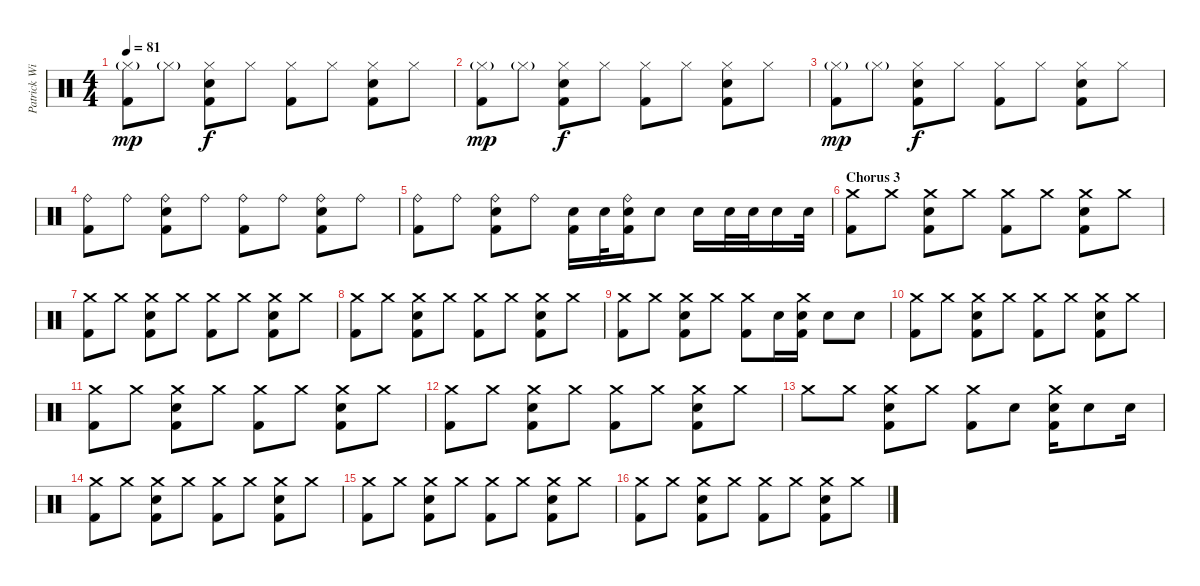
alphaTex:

\track ("Patrick Wilson" "Patrick Wi") {instrument percussion}
\staff {score}
\articulation defaults
\ts (4 4)
\tempo 81
\clef neutral
\ks c
("Hi-Hat (closed)"{g} "Kick (hit) 2").8{dy mp} "Hi-Hat (closed)"{g}.8 ("Hi-Hat (closed)" "Electric Snare (hit)" "Kick (hit) 2").8{dy f} "Hi-Hat (closed)".8 ("Hi-Hat (closed)" "Kick (hit) 2").8 "Hi-Hat (closed)".8 ("Hi-Hat (closed)" "Electric Snare (hit)" "Kick (hit) 2").8 "Hi-Hat (closed)".8 |
("Hi-Hat (closed)"{g} "Kick (hit) 2").8{dy mp} "Hi-Hat (closed)"{g}.8 ("Hi-Hat (closed)" "Electric Snare (hit)" "Kick (hit) 2").8{dy f} "Hi-Hat (closed)".8 ("Hi-Hat (closed)" "Kick (hit) 2").8 "Hi-Hat (closed)".8 ("Hi-Hat (closed)" "Electric Snare (hit)" "Kick (hit) 2").8 "Hi-Hat (closed)".8 |
("Hi-Hat (closed)"{g} "Kick (hit) 2").8{dy mp} "Hi-Hat (closed)"{g}.8 ("Hi-Hat (closed)" "Electric Snare (hit)" "Kick (hit) 2").8{dy f} "Hi-Hat (closed)".8 ("Hi-Hat (closed)" "Kick (hit) 2").8 "Hi-Hat (closed)".8 ("Hi-Hat (closed)" "Electric Snare (hit)" "Kick (hit) 2").8 "Hi-Hat (closed)".8 |
("Ride (bell)" "Kick (hit) 2").8 "Ride (bell)".8 ("Ride (bell)" "Electric Snare (hit)" "Kick (hit) 2").8 "Ride (bell)".8 ("Ride (bell)" "Kick (hit) 2").8 "Ride (bell)".8 ("Ride (bell)" "Electric Snare (hit)" "Kick (hit) 2").8 "Ride (bell)".8 |
("Ride (bell)" "Kick (hit) 2").8 "Ride (bell)".8 ("Ride (bell)" "Electric Snare (hit)" "Kick (hit) 2").8 "Ride (bell)".8 ("Electric Snare (hit)" "Kick (hit) 2").16 "Electric Snare (hit)".32 ("Ride (bell)" "Electric Snare (hit)" "Kick (hit) 2").16 "Electric Snare (hit)".8 "Electric Snare (hit)".16 "Electric Snare (hit)".32 "Electric Snare (hit)".32 "Electric Snare (hit)".16 "Electric Snare (hit)".32 |
\section ("" "Chorus 3")
("Crash medium (hit)" "Kick (hit) 2").8 "Crash medium (hit)".8 ("Crash medium (hit)" "Electric Snare (hit)" "Kick (hit) 2").8 "Crash medium (hit)".8 ("Crash medium (hit)" "Kick (hit) 2").8 "Crash medium (hit)".8 ("Crash medium (hit)" "Electric Snare (hit)" "Kick (hit) 2").8 "Crash medium (hit)".8 |
("Crash medium (hit)" "Kick (hit) 2").8 "Crash medium (hit)".8 ("Crash medium (hit)" "Electric Snare (hit)" "Kick (hit) 2").8 "Crash medium (hit)".8 ("Crash medium (hit)" "Kick (hit) 2").8 "Crash medium (hit)".8 ("Crash medium (hit)" "Electric Snare (hit)" "Kick (hit) 2").8 "Crash medium (hit)".8 |
("Crash medium (hit)" "Kick (hit) 2").8 "Crash medium (hit)".8 ("Crash medium (hit)" "Electric Snare (hit)" "Kick (hit) 2").8 "Crash medium (hit)".8 ("Crash medium (hit)" "Kick (hit) 2").8 "Crash medium (hit)".8 ("Crash medium (hit)" "Electric Snare (hit)" "Kick (hit) 2").8 "Crash medium (hit)".8 |
("Crash medium (hit)" "Kick (hit) 2").8 "Crash medium (hit)".8 ("Crash medium (hit)" "Electric Snare (hit)" "Kick (hit) 2").8 "Crash medium (hit)".8 ("Crash medium (hit)" "Kick (hit) 2").8 "Electric Snare (hit)".16 ("Crash medium (hit)" "Electric Snare (hit)" "Kick (hit) 2").16 "Electric Snare (hit)".8 "Electric Snare (hit)".8 |
("Crash medium (hit)" "Kick (hit) 2").8 "Crash medium (hit)".8 ("Crash medium (hit)" "Electric Snare (hit)" "Kick (hit) 2").8 "Crash medium (hit)".8 ("Crash medium (hit)" "Kick (hit) 2").8 "Crash medium (hit)".8 ("Crash medium (hit)" "Electric Snare (hit)" "Kick (hit) 2").8 "Crash medium (hit)".8 |
("Crash medium (hit)" "Kick (hit) 2").8 "Crash medium (hit)".8 ("Crash medium (hit)" "Electric Snare (hit)" "Kick (hit) 2").8 "Crash medium (hit)".8 ("Crash medium (hit)" "Kick (hit) 2").8 "Crash medium (hit)".8 ("Crash medium (hit)" "Electric Snare (hit)" "Kick (hit) 2").8 "Crash medium (hit)".8 |
("Crash medium (hit)" "Kick (hit) 2").8 "Crash medium (hit)".8 ("Crash medium (hit)" "Electric Snare (hit)" "Kick (hit) 2").8 "Crash medium (hit)".8 ("Crash medium (hit)" "Kick (hit) 2").8 "Crash medium (hit)".8 ("Crash medium (hit)" "Electric Snare (hit)" "Kick (hit) 2").8 "Crash medium (hit)".8 |
"Crash medium (hit)".8 "Crash medium (hit)".8 ("Crash medium (hit)" "Electric Snare (hit)" "Kick (hit) 2").8 "Crash medium (hit)".8 ("Crash medium (hit)" "Kick (hit) 2").8 "Electric Snare (hit)".8 ("Crash medium (hit)" "Electric Snare (hit)" "Kick (hit) 2").16 "Electric Snare (hit)".8 "Electric Snare (hit)".16 |
("Crash medium (hit)" "Kick (hit) 2").8 "Crash medium (hit)".8 ("Crash medium (hit)" "Electric Snare (hit)" "Kick (hit) 2").8 "Crash medium (hit)".8 ("Crash medium (hit)" "Kick (hit) 2").8 "Crash medium (hit)".8 ("Crash medium (hit)" "Electric Snare (hit)" "Kick (hit) 2").8 "Crash medium (hit)".8 |
("Crash medium (hit)" "Kick (hit) 2").8 "Crash medium (hit)".8 ("Crash medium (hit)" "Electric Snare (hit)" "Kick (hit) 2").8 "Crash medium (hit)".8 ("Crash medium (hit)" "Kick (hit) 2").8 "Crash medium (hit)".8 ("Crash medium (hit)" "Electric Snare (hit)" "Kick (hit) 2").8 "Crash medium (hit)".8 |
("Crash medium (hit)" "Kick (hit) 2").8 "Crash medium (hit)".8 ("Crash medium (hit)" "Electric Snare (hit)" "Kick (hit) 2").8 "Crash medium (hit)".8 ("Crash medium (hit)" "Kick (hit) 2").8 "Crash medium (hit)".8 ("Crash medium (hit)" "Electric Snare (hit)" "Kick (hit) 2").8 "Crash medium (hit)".8
